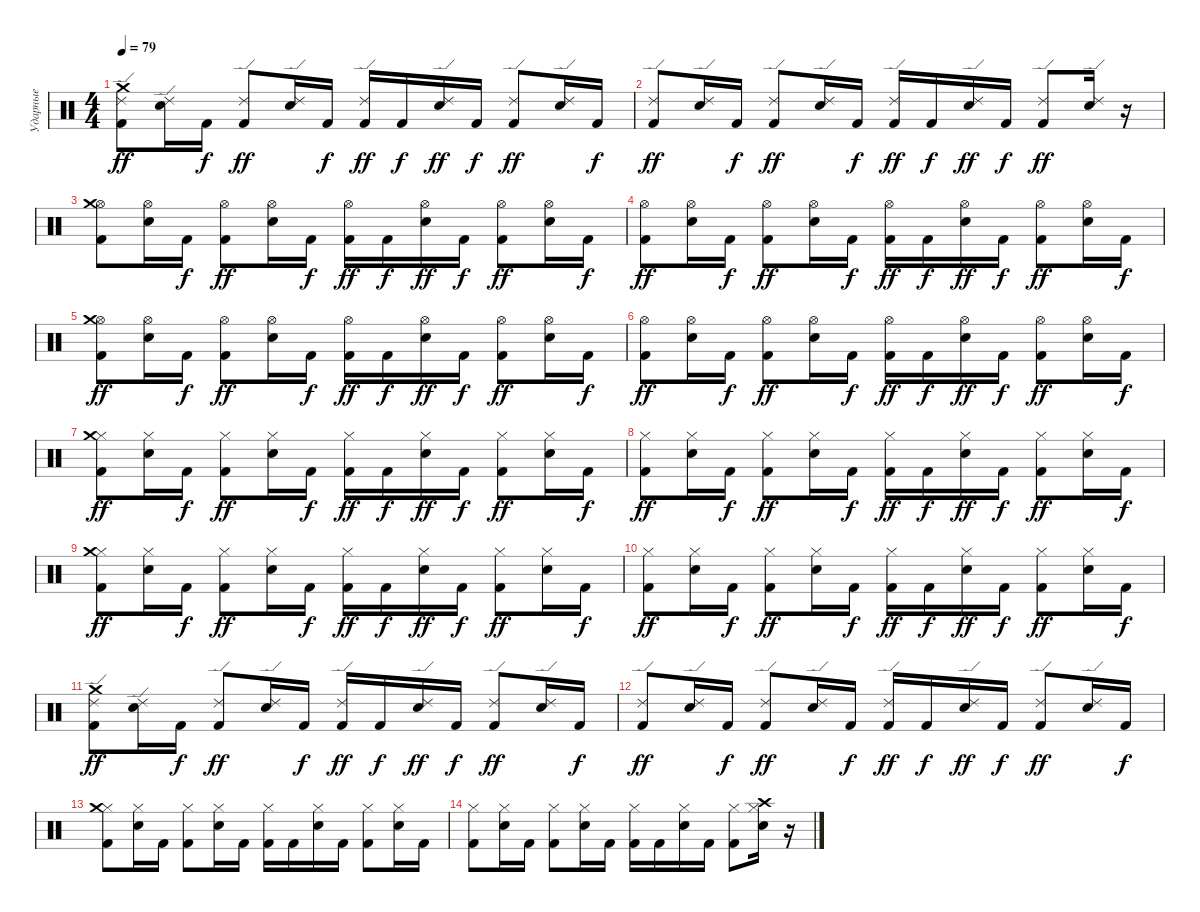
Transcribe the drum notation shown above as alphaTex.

\track ("Ударные" "Ударные") {instrument percussion}
\staff {score}
\articulation defaults
\ts (4 4)
\tempo 79
\clef neutral
\ks c
("Kick (hit) 2" "Ride (edge) 2" "Crash medium (hit)").8{dy ff} ("Snare (hit) 2" "Ride (edge) 2").16 "Kick (hit) 2".16{dy f} ("Kick (hit) 2" "Ride (edge) 2").8{dy ff} ("Snare (hit) 2" "Ride (edge) 2").16 "Kick (hit) 2".16{dy f} ("Kick (hit) 2" "Ride (edge) 2").16{dy ff} "Kick (hit) 2".16{dy f} ("Snare (hit) 2" "Ride (edge) 2").16{dy ff} "Kick (hit) 2".16{dy f} ("Kick (hit) 2" "Ride (edge) 2").8{dy ff} ("Snare (hit) 2" "Ride (edge) 2").16 "Kick (hit) 2".16{dy f} |
("Kick (hit) 2" "Ride (edge) 2").8{dy ff} ("Snare (hit) 2" "Ride (edge) 2").16 "Kick (hit) 2".16{dy f} ("Kick (hit) 2" "Ride (edge) 2").8{dy ff} ("Snare (hit) 2" "Ride (edge) 2").16 "Kick (hit) 2".16{dy f} ("Kick (hit) 2" "Ride (edge) 2").16{dy ff} "Kick (hit) 2".16{dy f} ("Snare (hit) 2" "Ride (edge) 2").16{dy ff} "Kick (hit) 2".16{dy f} ("Kick (hit) 2" "Ride (edge) 2").8{dy ff} ("Snare (hit) 2" "Ride (edge) 2").16 r.16 |
("Kick (hit) 2" "Hi-Hat (open)" "Crash medium (hit)").8 ("Snare (hit) 2" "Hi-Hat (open)").16 "Kick (hit) 2".16{dy f} ("Kick (hit) 2" "Hi-Hat (open)").8{dy ff} ("Snare (hit) 2" "Hi-Hat (open)").16 "Kick (hit) 2".16{dy f} ("Kick (hit) 2" "Hi-Hat (open)").16{dy ff} "Kick (hit) 2".16{dy f} ("Snare (hit) 2" "Hi-Hat (open)").16{dy ff} "Kick (hit) 2".16{dy f} ("Kick (hit) 2" "Hi-Hat (open)").8{dy ff} ("Snare (hit) 2" "Hi-Hat (open)").16 "Kick (hit) 2".16{dy f} |
("Kick (hit) 2" "Hi-Hat (open)").8{dy ff} ("Snare (hit) 2" "Hi-Hat (open)").16 "Kick (hit) 2".16{dy f} ("Kick (hit) 2" "Hi-Hat (open)").8{dy ff} ("Snare (hit) 2" "Hi-Hat (open)").16 "Kick (hit) 2".16{dy f} ("Kick (hit) 2" "Hi-Hat (open)").16{dy ff} "Kick (hit) 2".16{dy f} ("Snare (hit) 2" "Hi-Hat (open)").16{dy ff} "Kick (hit) 2".16{dy f} ("Kick (hit) 2" "Hi-Hat (open)").8{dy ff} ("Snare (hit) 2" "Hi-Hat (open)").16 "Kick (hit) 2".16{dy f} |
("Kick (hit) 2" "Hi-Hat (open)" "Crash medium (hit)").8{dy ff} ("Snare (hit) 2" "Hi-Hat (open)").16 "Kick (hit) 2".16{dy f} ("Kick (hit) 2" "Hi-Hat (open)").8{dy ff} ("Snare (hit) 2" "Hi-Hat (open)").16 "Kick (hit) 2".16{dy f} ("Kick (hit) 2" "Hi-Hat (open)").16{dy ff} "Kick (hit) 2".16{dy f} ("Snare (hit) 2" "Hi-Hat (open)").16{dy ff} "Kick (hit) 2".16{dy f} ("Kick (hit) 2" "Hi-Hat (open)").8{dy ff} ("Snare (hit) 2" "Hi-Hat (open)").16 "Kick (hit) 2".16{dy f} |
("Kick (hit) 2" "Hi-Hat (open)").8{dy ff} ("Snare (hit) 2" "Hi-Hat (open)").16 "Kick (hit) 2".16{dy f} ("Kick (hit) 2" "Hi-Hat (open)").8{dy ff} ("Snare (hit) 2" "Hi-Hat (open)").16 "Kick (hit) 2".16{dy f} ("Kick (hit) 2" "Hi-Hat (open)").16{dy ff} "Kick (hit) 2".16{dy f} ("Snare (hit) 2" "Hi-Hat (open)").16{dy ff} "Kick (hit) 2".16{dy f} ("Kick (hit) 2" "Hi-Hat (open)").8{dy ff} ("Snare (hit) 2" "Hi-Hat (open)").16 "Kick (hit) 2".16{dy f} |
("Kick (hit) 2" "Hi-Hat (closed)" "Crash medium (hit)").8{dy ff} ("Snare (hit) 2" "Hi-Hat (closed)").16 "Kick (hit) 2".16{dy f} ("Kick (hit) 2" "Hi-Hat (closed)").8{dy ff} ("Snare (hit) 2" "Hi-Hat (closed)").16 "Kick (hit) 2".16{dy f} ("Kick (hit) 2" "Hi-Hat (closed)").16{dy ff} "Kick (hit) 2".16{dy f} ("Snare (hit) 2" "Hi-Hat (closed)").16{dy ff} "Kick (hit) 2".16{dy f} ("Kick (hit) 2" "Hi-Hat (closed)").8{dy ff} ("Snare (hit) 2" "Hi-Hat (closed)").16 "Kick (hit) 2".16{dy f} |
("Kick (hit) 2" "Hi-Hat (closed)").8{dy ff} ("Snare (hit) 2" "Hi-Hat (closed)").16 "Kick (hit) 2".16{dy f} ("Kick (hit) 2" "Hi-Hat (closed)").8{dy ff} ("Snare (hit) 2" "Hi-Hat (closed)").16 "Kick (hit) 2".16{dy f} ("Kick (hit) 2" "Hi-Hat (closed)").16{dy ff} "Kick (hit) 2".16{dy f} ("Snare (hit) 2" "Hi-Hat (closed)").16{dy ff} "Kick (hit) 2".16{dy f} ("Kick (hit) 2" "Hi-Hat (closed)").8{dy ff} ("Snare (hit) 2" "Hi-Hat (closed)").16 "Kick (hit) 2".16{dy f} |
("Kick (hit) 2" "Hi-Hat (closed)" "Crash medium (hit)").8{dy ff} ("Snare (hit) 2" "Hi-Hat (closed)").16 "Kick (hit) 2".16{dy f} ("Kick (hit) 2" "Hi-Hat (closed)").8{dy ff} ("Snare (hit) 2" "Hi-Hat (closed)").16 "Kick (hit) 2".16{dy f} ("Kick (hit) 2" "Hi-Hat (closed)").16{dy ff} "Kick (hit) 2".16{dy f} ("Snare (hit) 2" "Hi-Hat (closed)").16{dy ff} "Kick (hit) 2".16{dy f} ("Kick (hit) 2" "Hi-Hat (closed)").8{dy ff} ("Snare (hit) 2" "Hi-Hat (closed)").16 "Kick (hit) 2".16{dy f} |
("Kick (hit) 2" "Hi-Hat (closed)").8{dy ff} ("Snare (hit) 2" "Hi-Hat (closed)").16 "Kick (hit) 2".16{dy f} ("Kick (hit) 2" "Hi-Hat (closed)").8{dy ff} ("Snare (hit) 2" "Hi-Hat (closed)").16 "Kick (hit) 2".16{dy f} ("Kick (hit) 2" "Hi-Hat (closed)").16{dy ff} "Kick (hit) 2".16{dy f} ("Snare (hit) 2" "Hi-Hat (closed)").16{dy ff} "Kick (hit) 2".16{dy f} ("Kick (hit) 2" "Hi-Hat (closed)").8{dy ff} ("Snare (hit) 2" "Hi-Hat (closed)").16 "Kick (hit) 2".16{dy f} |
("Kick (hit) 2" "Ride (edge) 2" "Crash medium (hit)").8{dy ff} ("Snare (hit) 2" "Ride (edge) 2").16 "Kick (hit) 2".16{dy f} ("Kick (hit) 2" "Ride (edge) 2").8{dy ff} ("Snare (hit) 2" "Ride (edge) 2").16 "Kick (hit) 2".16{dy f} ("Kick (hit) 2" "Ride (edge) 2").16{dy ff} "Kick (hit) 2".16{dy f} ("Snare (hit) 2" "Ride (edge) 2").16{dy ff} "Kick (hit) 2".16{dy f} ("Kick (hit) 2" "Ride (edge) 2").8{dy ff} ("Snare (hit) 2" "Ride (edge) 2").16 "Kick (hit) 2".16{dy f} |
("Kick (hit) 2" "Ride (edge) 2").8{dy ff} ("Snare (hit) 2" "Ride (edge) 2").16 "Kick (hit) 2".16{dy f} ("Kick (hit) 2" "Ride (edge) 2").8{dy ff} ("Snare (hit) 2" "Ride (edge) 2").16 "Kick (hit) 2".16{dy f} ("Kick (hit) 2" "Ride (edge) 2").16{dy ff} "Kick (hit) 2".16{dy f} ("Snare (hit) 2" "Ride (edge) 2").16{dy ff} "Kick (hit) 2".16{dy f} ("Kick (hit) 2" "Ride (edge) 2").8{dy ff} ("Snare (hit) 2" "Ride (edge) 2").16 "Kick (hit) 2".16{dy f} |
("Kick (hit) 2" "Hi-Hat (closed)" "Crash medium (hit)").8 ("Snare (hit) 2" "Hi-Hat (closed)").16 "Kick (hit) 2".16 ("Kick (hit) 2" "Hi-Hat (closed)").8 ("Snare (hit) 2" "Hi-Hat (closed)").16 "Kick (hit) 2".16 ("Kick (hit) 2" "Hi-Hat (closed)").16 "Kick (hit) 2".16 ("Snare (hit) 2" "Hi-Hat (closed)").16 "Kick (hit) 2".16 ("Kick (hit) 2" "Hi-Hat (closed)").8 ("Snare (hit) 2" "Hi-Hat (closed)").16 "Kick (hit) 2".16 |
("Kick (hit) 2" "Hi-Hat (closed)").8 ("Snare (hit) 2" "Hi-Hat (closed)").16 "Kick (hit) 2".16 ("Kick (hit) 2" "Hi-Hat (closed)").8 ("Snare (hit) 2" "Hi-Hat (closed)").16 "Kick (hit) 2".16 ("Kick (hit) 2" "Hi-Hat (closed)").16 "Kick (hit) 2".16 ("Snare (hit) 2" "Hi-Hat (closed)").16 "Kick (hit) 2".16 ("Kick (hit) 2" "Hi-Hat (closed)").8 ("Snare (hit) 2" "Hi-Hat (closed)" "Crash high (hit)").16 r.16
